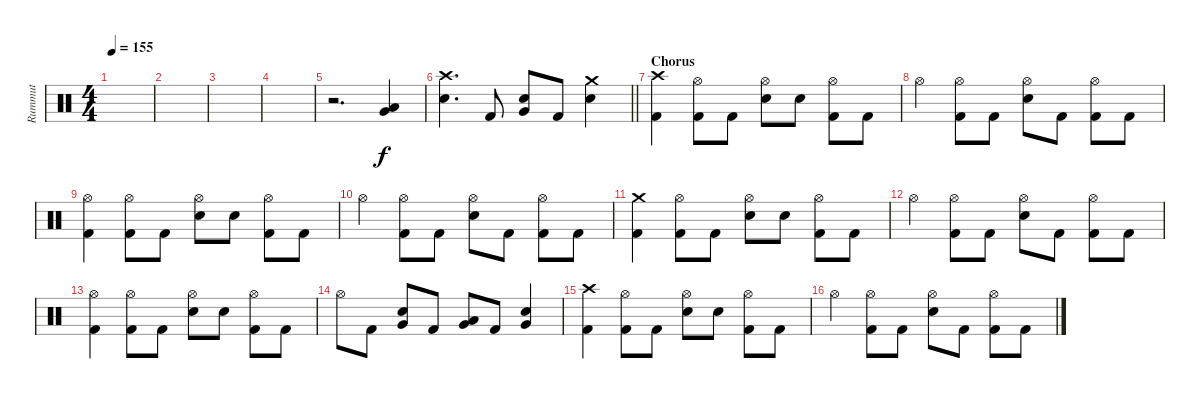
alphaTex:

\track ("Rummut" "Rummut") {instrument percussion}
\staff {score}
\articulation defaults
\ts (4 4)
\tempo 155
\clef neutral
\ks c
|
|
|
|
r.2{d} ("Low Tom (hit)" "Very Low Tom (hit)").4 |
\barLineRight lightlight
("Crash high (hit)" "Electric Snare (hit)").4{d} "Kick (hit) 2".8 ("Very Low Tom (hit)" "Electric Snare (hit)").8 "Kick (hit) 2".8 ("Crash medium (hit)" "Electric Snare (hit)").4 |
\section ("" "Chorus")
("Crash high (hit)" "Kick (hit) 2").4 ("Hi-Hat (open)" "Kick (hit) 2").8 "Kick (hit) 2".8 ("Hi-Hat (open)" "Electric Snare (hit)").8 "Electric Snare (hit)".8 ("Hi-Hat (open)" "Kick (hit) 2").8 "Kick (hit) 2".8 |
"Hi-Hat (open)".4 ("Hi-Hat (open)" "Kick (hit) 2").8 "Kick (hit) 2".8 ("Hi-Hat (open)" "Electric Snare (hit)").8 "Kick (hit) 2".8 ("Hi-Hat (open)" "Kick (hit) 2").8 "Kick (hit) 2".8 |
("Hi-Hat (open)" "Kick (hit) 2").4 ("Hi-Hat (open)" "Kick (hit) 2").8 "Kick (hit) 2".8 ("Hi-Hat (open)" "Electric Snare (hit)").8 "Electric Snare (hit)".8 ("Hi-Hat (open)" "Kick (hit) 2").8 "Kick (hit) 2".8 |
"Hi-Hat (open)".4 ("Hi-Hat (open)" "Kick (hit) 2").8 "Kick (hit) 2".8 ("Hi-Hat (open)" "Electric Snare (hit)").8 "Kick (hit) 2".8 ("Hi-Hat (open)" "Kick (hit) 2").8 "Kick (hit) 2".8 |
("Crash medium (hit)" "Kick (hit) 2").4 ("Hi-Hat (open)" "Kick (hit) 2").8 "Kick (hit) 2".8 ("Hi-Hat (open)" "Electric Snare (hit)").8 "Electric Snare (hit)".8 ("Hi-Hat (open)" "Kick (hit) 2").8 "Kick (hit) 2".8 |
"Hi-Hat (open)".4 ("Hi-Hat (open)" "Kick (hit) 2").8 "Kick (hit) 2".8 ("Hi-Hat (open)" "Electric Snare (hit)").8 "Kick (hit) 2".8 ("Hi-Hat (open)" "Kick (hit) 2").8 "Kick (hit) 2".8 |
("Hi-Hat (open)" "Kick (hit) 2").4 ("Hi-Hat (open)" "Kick (hit) 2").8 "Kick (hit) 2".8 ("Hi-Hat (open)" "Electric Snare (hit)").8 "Electric Snare (hit)".8 ("Hi-Hat (open)" "Kick (hit) 2").8 "Kick (hit) 2".8 |
"Hi-Hat (open)".8 "Kick (hit) 2".8 ("Very Low Tom (hit)" "Electric Snare (hit)").8 "Kick (hit) 2".8 ("Low Tom (hit)" "Very Low Tom (hit)").8 "Kick (hit) 2".8 ("Very Low Tom (hit)" "Electric Snare (hit)").4 |
("Crash high (hit)" "Kick (hit) 2").4 ("Hi-Hat (open)" "Kick (hit) 2").8 "Kick (hit) 2".8 ("Hi-Hat (open)" "Electric Snare (hit)").8 "Electric Snare (hit)".8 ("Hi-Hat (open)" "Kick (hit) 2").8 "Kick (hit) 2".8 |
"Hi-Hat (open)".4 ("Hi-Hat (open)" "Kick (hit) 2").8 "Kick (hit) 2".8 ("Hi-Hat (open)" "Electric Snare (hit)").8 "Kick (hit) 2".8 ("Hi-Hat (open)" "Kick (hit) 2").8 "Kick (hit) 2".8
